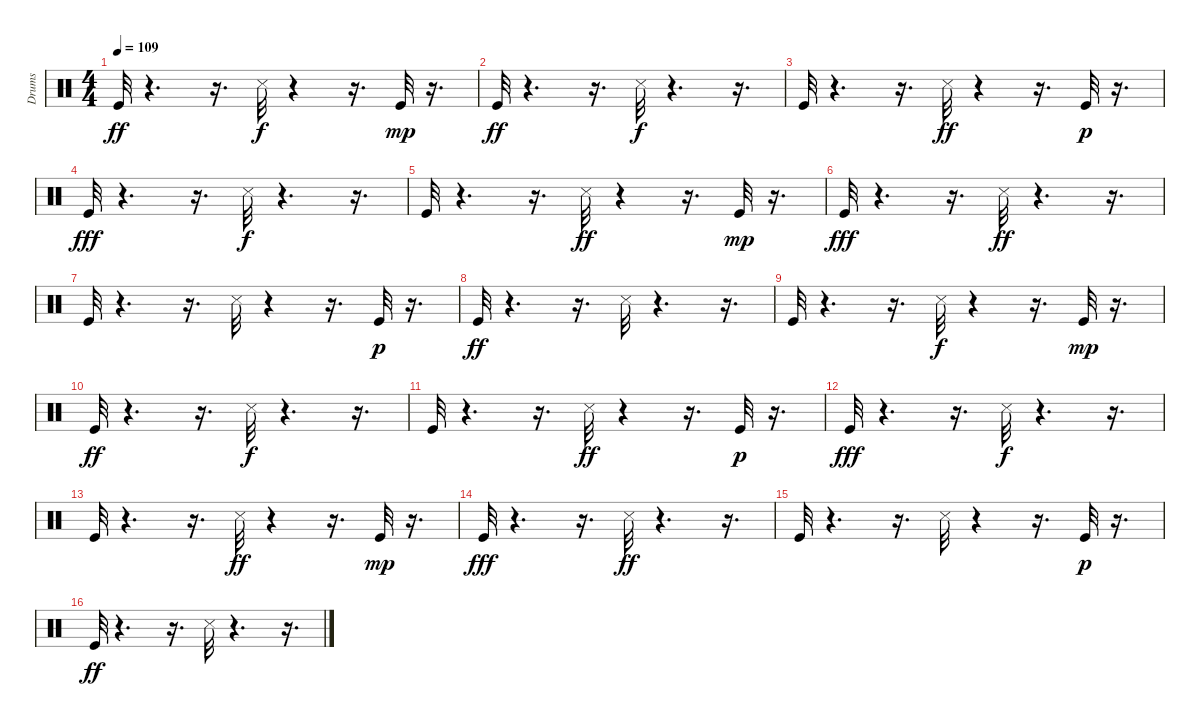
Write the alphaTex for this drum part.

\track ("Drums" "Drums") {instrument percussion}
\staff {score}
\articulation defaults
\ts (4 4)
\tempo 109
\clef neutral
\ks c "Kick (hit)".32{dy ff}
r.4{d} r.16{d} "Snare (side stick) 3".32{dy f} r.4 r.16{d} "Kick (hit)".32{dy mp} r.16{d} |
"Kick (hit)".32{dy ff} r.4{d} r.16{d} "Snare (side stick) 3".32{dy f} r.4{d} r.16{d} |
"Kick (hit)".32 r.4{d} r.16{d} "Snare (side stick) 3".32{dy ff} r.4 r.16{d} "Kick (hit)".32{dy p} r.16{d} |
"Kick (hit)".32{dy fff} r.4{d} r.16{d} "Snare (side stick) 3".32{dy f} r.4{d} r.16{d} |
"Kick (hit)".32 r.4{d} r.16{d} "Snare (side stick) 3".32{dy ff} r.4 r.16{d} "Kick (hit)".32{dy mp} r.16{d} |
"Kick (hit)".32{dy fff} r.4{d} r.16{d} "Snare (side stick) 3".32{dy ff} r.4{d} r.16{d} |
"Kick (hit)".32 r.4{d} r.16{d} "Snare (side stick) 3".32 r.4 r.16{d} "Kick (hit)".32{dy p} r.16{d} |
"Kick (hit)".32{dy ff} r.4{d} r.16{d} "Snare (side stick) 3".32 r.4{d} r.16{d} |
"Kick (hit)".32 r.4{d} r.16{d} "Snare (side stick) 3".32{dy f} r.4 r.16{d} "Kick (hit)".32{dy mp} r.16{d} |
"Kick (hit)".32{dy ff} r.4{d} r.16{d} "Snare (side stick) 3".32{dy f} r.4{d} r.16{d} |
"Kick (hit)".32 r.4{d} r.16{d} "Snare (side stick) 3".32{dy ff} r.4 r.16{d} "Kick (hit)".32{dy p} r.16{d} |
"Kick (hit)".32{dy fff} r.4{d} r.16{d} "Snare (side stick) 3".32{dy f} r.4{d} r.16{d} |
"Kick (hit)".32 r.4{d} r.16{d} "Snare (side stick) 3".32{dy ff} r.4 r.16{d} "Kick (hit)".32{dy mp} r.16{d} |
"Kick (hit)".32{dy fff} r.4{d} r.16{d} "Snare (side stick) 3".32{dy ff} r.4{d} r.16{d} |
"Kick (hit)".32 r.4{d} r.16{d} "Snare (side stick) 3".32 r.4 r.16{d} "Kick (hit)".32{dy p} r.16{d} |
"Kick (hit)".32{dy ff} r.4{d} r.16{d} "Snare (side stick) 3".32 r.4{d} r.16{d}
